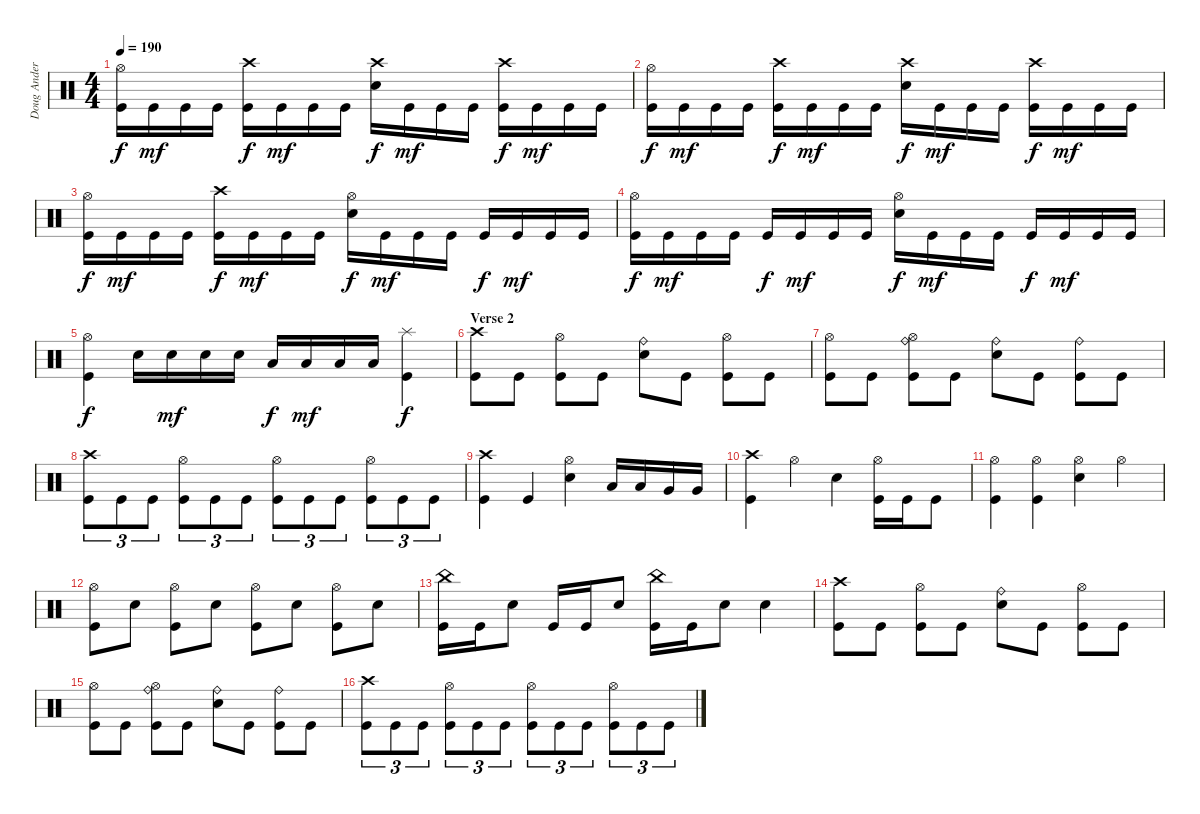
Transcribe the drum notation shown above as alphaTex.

\track ("Doug Anderson" "Doug Ander") {instrument percussion}
\staff {score}
\articulation defaults
\ts (4 4)
\tempo 190
\clef neutral
\ks c
("Kick (hit)" "Hi-Hat (open)").16{dy f} "Kick (hit)".16{dy mf} "Kick (hit)".16 "Kick (hit)".16 ("Kick (hit)" "Crash high (hit)").16{dy f} "Kick (hit)".16{dy mf} "Kick (hit)".16 "Kick (hit)".16 ("Snare (hit) 2" "Crash high (hit)").16{dy f} "Kick (hit)".16{dy mf} "Kick (hit)".16 "Kick (hit)".16 ("Kick (hit)" "Crash high (hit)").16{dy f} "Kick (hit)".16{dy mf} "Kick (hit)".16 "Kick (hit)".16 |
("Kick (hit)" "Hi-Hat (open)").16{dy f} "Kick (hit)".16{dy mf} "Kick (hit)".16 "Kick (hit)".16 ("Kick (hit)" "Crash high (hit)").16{dy f} "Kick (hit)".16{dy mf} "Kick (hit)".16 "Kick (hit)".16 ("Snare (hit) 2" "Crash high (hit)").16{dy f} "Kick (hit)".16{dy mf} "Kick (hit)".16 "Kick (hit)".16 ("Kick (hit)" "Crash high (hit)").16{dy f} "Kick (hit)".16{dy mf} "Kick (hit)".16 "Kick (hit)".16 |
("Kick (hit)" "Hi-Hat (open)").16{dy f} "Kick (hit)".16{dy mf} "Kick (hit)".16 "Kick (hit)".16 ("Kick (hit)" "Crash high (hit)").16{dy f} "Kick (hit)".16{dy mf} "Kick (hit)".16 "Kick (hit)".16 ("Snare (hit) 2" "Hi-Hat (open)").16{dy f} "Kick (hit)".16{dy mf} "Kick (hit)".16 "Kick (hit)".16 "Kick (hit)".16{dy f} "Kick (hit)".16{dy mf} "Kick (hit)".16 "Kick (hit)".16 |
("Kick (hit)" "Hi-Hat (open)").16{dy f} "Kick (hit)".16{dy mf} "Kick (hit)".16 "Kick (hit)".16 "Kick (hit)".16{dy f} "Kick (hit)".16{dy mf} "Kick (hit)".16 "Kick (hit)".16 ("Snare (hit) 2" "Hi-Hat (open)").16{dy f} "Kick (hit)".16{dy mf} "Kick (hit)".16 "Kick (hit)".16 "Kick (hit)".16{dy f} "Kick (hit)".16{dy mf} "Kick (hit)".16 "Kick (hit)".16 |
("Kick (hit)" "Hi-Hat (open)").4{dy f} "Snare (hit) 2".16 "Snare (hit) 2".16{dy mf} "Snare (hit) 2".16 "Snare (hit) 2".16 "Low Tom (hit)".16{dy f} "Low Tom (hit)".16{dy mf} "Low Tom (hit)".16 "Low Tom (hit)".16 ("Splash (hit)" "Kick (hit)").4{dy f} |
\section ("" "Verse 2")
("Kick (hit)" "Crash high (hit)").8 "Kick (hit)".8 ("Kick (hit)" "Hi-Hat (open)").8 "Kick (hit)".8 ("Ride (bell)" "Snare (hit) 2").8 "Kick (hit)".8 ("Kick (hit)" "Hi-Hat (open)").8 "Kick (hit)".8 |
("Kick (hit)" "Hi-Hat (open)").8 "Kick (hit)".8 ("Kick (hit)" "Hi-Hat (open)" "Ride (bell)").8 "Kick (hit)".8 ("Ride (bell)" "Snare (hit) 2").8 "Kick (hit)".8 ("Kick (hit)" "Ride (bell)").8 "Kick (hit)".8 |
("Kick (hit)" "Crash high (hit)").8{tu (3 2)} "Kick (hit)".8{tu (3 2)} "Kick (hit)".8{tu (3 2)} ("Kick (hit)" "Hi-Hat (open)").8{tu (3 2)} "Kick (hit)".8{tu (3 2)} "Kick (hit)".8{tu (3 2)} ("Kick (hit)" "Hi-Hat (open)").8{tu (3 2)} "Kick (hit)".8{tu (3 2)} "Kick (hit)".8{tu (3 2)} ("Kick (hit)" "Hi-Hat (open)").8{tu (3 2)} "Kick (hit)".8{tu (3 2)} "Kick (hit)".8{tu (3 2)} |
("Crash high (hit)" "Kick (hit)").4 "Kick (hit)".4 ("Snare (hit) 2" "Hi-Hat (open)").4 "Low Tom (hit)".16 "Low Tom (hit)".16 "Very Low Tom (hit)".16 "Very Low Tom (hit)".16 |
("Kick (hit)" "Crash high (hit)").4 "Hi-Hat (open)".4 "Snare (hit) 2".4 ("Hi-Hat (open)" "Kick (hit)").16 "Kick (hit)".16 "Kick (hit)".8 |
("Kick (hit)" "Hi-Hat (open)").4 ("Kick (hit)" "Hi-Hat (open)").4 ("Hi-Hat (open)" "Snare (hit) 2").4 "Hi-Hat (open)".4 |
("Kick (hit)" "Hi-Hat (open)").8 "Snare (hit) 2".8 ("Kick (hit)" "Hi-Hat (open)").8 "Snare (hit) 2".8 ("Kick (hit)" "Hi-Hat (open)").8 "Snare (hit) 2".8 ("Kick (hit)" "Hi-Hat (open)").8 "Snare (hit) 2".8 |
("Kick (hit)" "China (hit)").16 "Kick (hit)".16 "Snare (hit) 2".8 "Kick (hit)".16 "Kick (hit)".16 "Snare (hit) 2".8 ("Kick (hit)" "China (hit)").16 "Kick (hit)".16 "Snare (hit) 2".8 "Snare (hit) 2".4 |
("Kick (hit)" "Crash high (hit)").8 "Kick (hit)".8 ("Kick (hit)" "Hi-Hat (open)").8 "Kick (hit)".8 ("Ride (bell)" "Snare (hit) 2").8 "Kick (hit)".8 ("Kick (hit)" "Hi-Hat (open)").8 "Kick (hit)".8 |
("Kick (hit)" "Hi-Hat (open)").8 "Kick (hit)".8 ("Kick (hit)" "Hi-Hat (open)" "Ride (bell)").8 "Kick (hit)".8 ("Ride (bell)" "Snare (hit) 2").8 "Kick (hit)".8 ("Kick (hit)" "Ride (bell)").8 "Kick (hit)".8 |
("Kick (hit)" "Crash high (hit)").8{tu (3 2)} "Kick (hit)".8{tu (3 2)} "Kick (hit)".8{tu (3 2)} ("Kick (hit)" "Hi-Hat (open)").8{tu (3 2)} "Kick (hit)".8{tu (3 2)} "Kick (hit)".8{tu (3 2)} ("Kick (hit)" "Hi-Hat (open)").8{tu (3 2)} "Kick (hit)".8{tu (3 2)} "Kick (hit)".8{tu (3 2)} ("Kick (hit)" "Hi-Hat (open)").8{tu (3 2)} "Kick (hit)".8{tu (3 2)} "Kick (hit)".8{tu (3 2)}
